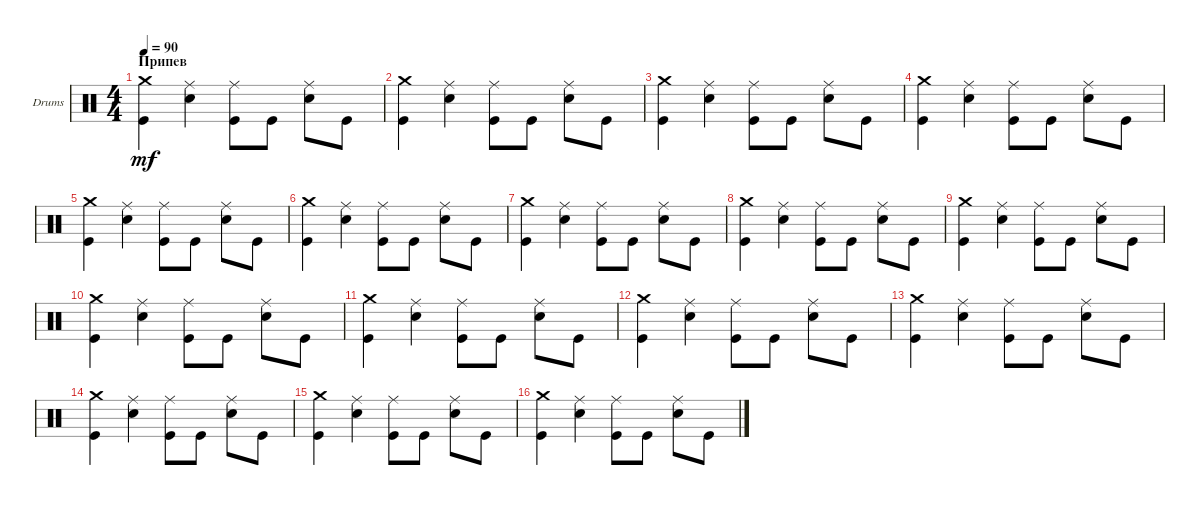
\bracketExtendMode groupsimilarinstruments
\firstSystemTrackNameOrientation horizontal
\otherSystemsTrackNameOrientation horizontal
\track ("Drumkit" "Drums") {instrument percussion}
\staff {score}
\articulation defaults
\ts (4 4)
\section ("" "Припев")
\tempo 90
\clef neutral
\ks c
("Kick (hit)" "Crash medium (hit)").4{dy mf} ("Snare (hit) 2" "Ride (middle)").4 ("Kick (hit)" "Ride (middle)").8 "Kick (hit)".8 ("Snare (hit) 2" "Ride (middle)").8 "Kick (hit)".8 |
("Kick (hit)" "Crash medium (hit)").4 ("Snare (hit) 2" "Ride (middle)").4 ("Kick (hit)" "Ride (middle)").8 "Kick (hit)".8 ("Snare (hit) 2" "Ride (middle)").8 "Kick (hit)".8 |
("Kick (hit)" "Crash medium (hit)").4 ("Snare (hit) 2" "Ride (middle)").4 ("Kick (hit)" "Ride (middle)").8 "Kick (hit)".8 ("Snare (hit) 2" "Ride (middle)").8 "Kick (hit)".8 |
("Kick (hit)" "Crash medium (hit)").4 ("Snare (hit) 2" "Ride (middle)").4 ("Kick (hit)" "Ride (middle)").8 "Kick (hit)".8 ("Snare (hit) 2" "Ride (middle)").8 "Kick (hit)".8 |
("Kick (hit)" "Crash medium (hit)").4 ("Snare (hit) 2" "Ride (middle)").4 ("Kick (hit)" "Ride (middle)").8 "Kick (hit)".8 ("Snare (hit) 2" "Ride (middle)").8 "Kick (hit)".8 |
("Kick (hit)" "Crash medium (hit)").4 ("Snare (hit) 2" "Ride (middle)").4 ("Kick (hit)" "Ride (middle)").8 "Kick (hit)".8 ("Snare (hit) 2" "Ride (middle)").8 "Kick (hit)".8 |
("Kick (hit)" "Crash medium (hit)").4 ("Snare (hit) 2" "Ride (middle)").4 ("Kick (hit)" "Ride (middle)").8 "Kick (hit)".8 ("Snare (hit) 2" "Ride (middle)").8 "Kick (hit)".8 |
("Kick (hit)" "Crash medium (hit)").4 ("Snare (hit) 2" "Ride (middle)").4 ("Kick (hit)" "Ride (middle)").8 "Kick (hit)".8 ("Snare (hit) 2" "Ride (middle)").8 "Kick (hit)".8 |
("Kick (hit)" "Crash medium (hit)").4 ("Snare (hit) 2" "Ride (middle)").4 ("Kick (hit)" "Ride (middle)").8 "Kick (hit)".8 ("Snare (hit) 2" "Ride (middle)").8 "Kick (hit)".8 |
("Kick (hit)" "Crash medium (hit)").4 ("Snare (hit) 2" "Ride (middle)").4 ("Kick (hit)" "Ride (middle)").8 "Kick (hit)".8 ("Snare (hit) 2" "Ride (middle)").8 "Kick (hit)".8 |
("Kick (hit)" "Crash medium (hit)").4 ("Snare (hit) 2" "Ride (middle)").4 ("Kick (hit)" "Ride (middle)").8 "Kick (hit)".8 ("Snare (hit) 2" "Ride (middle)").8 "Kick (hit)".8 |
("Kick (hit)" "Crash medium (hit)").4 ("Snare (hit) 2" "Ride (middle)").4 ("Kick (hit)" "Ride (middle)").8 "Kick (hit)".8 ("Snare (hit) 2" "Ride (middle)").8 "Kick (hit)".8 |
("Kick (hit)" "Crash medium (hit)").4 ("Snare (hit) 2" "Ride (middle)").4 ("Kick (hit)" "Ride (middle)").8 "Kick (hit)".8 ("Snare (hit) 2" "Ride (middle)").8 "Kick (hit)".8 |
("Kick (hit)" "Crash medium (hit)").4 ("Snare (hit) 2" "Ride (middle)").4 ("Kick (hit)" "Ride (middle)").8 "Kick (hit)".8 ("Snare (hit) 2" "Ride (middle)").8 "Kick (hit)".8 |
("Kick (hit)" "Crash medium (hit)").4 ("Snare (hit) 2" "Ride (middle)").4 ("Kick (hit)" "Ride (middle)").8 "Kick (hit)".8 ("Snare (hit) 2" "Ride (middle)").8 "Kick (hit)".8 |
("Kick (hit)" "Crash medium (hit)").4 ("Snare (hit) 2" "Ride (middle)").4 ("Kick (hit)" "Ride (middle)").8 "Kick (hit)".8 ("Snare (hit) 2" "Ride (middle)").8 "Kick (hit)".8
